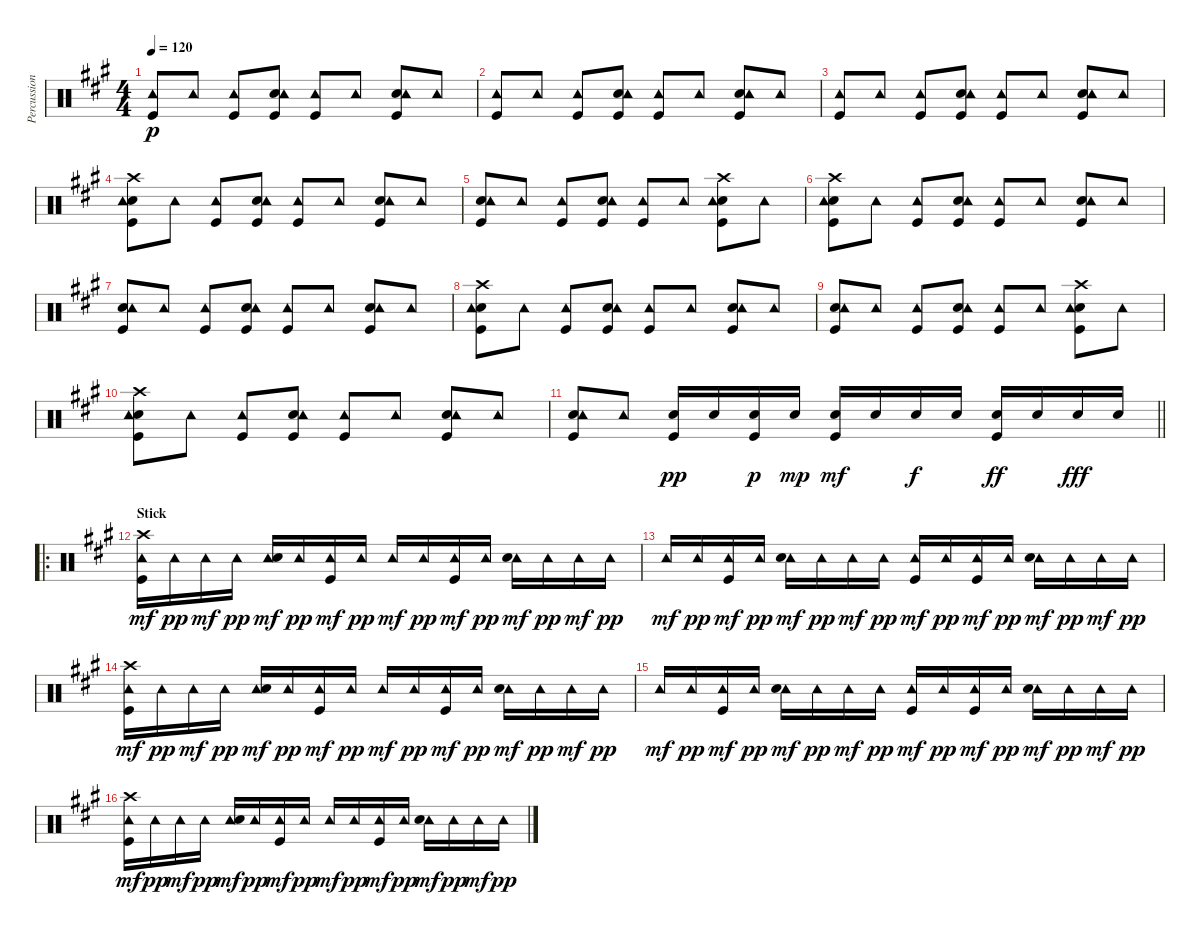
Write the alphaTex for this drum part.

\track ("Percussion" "Percussion") {instrument percussion}
\staff {score}
\articulation defaults
\ts (4 4)
\tempo 120
\clef neutral
\ks a
("Kick (hit)" "Tambourine (hit)").8{dy p} "Tambourine (hit)".8 ("Kick (hit)" "Tambourine (hit)").8 ("Kick (hit)" "Electric Snare (hit)" "Tambourine (hit)").8 ("Kick (hit)" "Tambourine (hit)").8 "Tambourine (hit)".8 ("Kick (hit)" "Electric Snare (hit)" "Tambourine (hit)").8 "Tambourine (hit)".8 |
("Kick (hit)" "Tambourine (hit)").8 "Tambourine (hit)".8 ("Kick (hit)" "Tambourine (hit)").8 ("Kick (hit)" "Electric Snare (hit)" "Tambourine (hit)").8 ("Kick (hit)" "Tambourine (hit)").8 "Tambourine (hit)".8 ("Kick (hit)" "Electric Snare (hit)" "Tambourine (hit)").8 "Tambourine (hit)".8 |
("Kick (hit)" "Tambourine (hit)").8 "Tambourine (hit)".8 ("Kick (hit)" "Tambourine (hit)").8 ("Kick (hit)" "Electric Snare (hit)" "Tambourine (hit)").8 ("Kick (hit)" "Tambourine (hit)").8 "Tambourine (hit)".8 ("Kick (hit)" "Electric Snare (hit)" "Tambourine (hit)").8 "Tambourine (hit)".8 |
("Kick (hit)" "Electric Snare (hit)" "Crash high (hit)" "Tambourine (hit)").8 "Tambourine (hit)".8 ("Kick (hit)" "Tambourine (hit)").8 ("Kick (hit)" "Electric Snare (hit)" "Tambourine (hit)").8 ("Kick (hit)" "Tambourine (hit)").8 "Tambourine (hit)".8 ("Kick (hit)" "Electric Snare (hit)" "Tambourine (hit)").8 "Tambourine (hit)".8 |
("Kick (hit)" "Electric Snare (hit)" "Tambourine (hit)").8 "Tambourine (hit)".8 ("Kick (hit)" "Tambourine (hit)").8 ("Kick (hit)" "Electric Snare (hit)" "Tambourine (hit)").8 ("Kick (hit)" "Tambourine (hit)").8 "Tambourine (hit)".8 ("Kick (hit)" "Electric Snare (hit)" "Crash high (hit)" "Tambourine (hit)").8 "Tambourine (hit)".8 |
("Kick (hit)" "Electric Snare (hit)" "Crash high (hit)" "Tambourine (hit)").8 "Tambourine (hit)".8 ("Kick (hit)" "Tambourine (hit)").8 ("Kick (hit)" "Electric Snare (hit)" "Tambourine (hit)").8 ("Kick (hit)" "Tambourine (hit)").8 "Tambourine (hit)".8 ("Kick (hit)" "Electric Snare (hit)" "Tambourine (hit)").8 "Tambourine (hit)".8 |
("Kick (hit)" "Electric Snare (hit)" "Tambourine (hit)").8 "Tambourine (hit)".8 ("Kick (hit)" "Tambourine (hit)").8 ("Kick (hit)" "Electric Snare (hit)" "Tambourine (hit)").8 ("Kick (hit)" "Tambourine (hit)").8 "Tambourine (hit)".8 ("Kick (hit)" "Electric Snare (hit)" "Tambourine (hit)").8 "Tambourine (hit)".8 |
("Kick (hit)" "Electric Snare (hit)" "Crash high (hit)" "Tambourine (hit)").8 "Tambourine (hit)".8 ("Kick (hit)" "Tambourine (hit)").8 ("Kick (hit)" "Electric Snare (hit)" "Tambourine (hit)").8 ("Kick (hit)" "Tambourine (hit)").8 "Tambourine (hit)".8 ("Kick (hit)" "Electric Snare (hit)" "Tambourine (hit)").8 "Tambourine (hit)".8 |
("Kick (hit)" "Electric Snare (hit)" "Tambourine (hit)").8 "Tambourine (hit)".8 ("Kick (hit)" "Tambourine (hit)").8 ("Kick (hit)" "Electric Snare (hit)" "Tambourine (hit)").8 ("Kick (hit)" "Tambourine (hit)").8 "Tambourine (hit)".8 ("Kick (hit)" "Electric Snare (hit)" "Crash high (hit)" "Tambourine (hit)").8 "Tambourine (hit)".8 |
("Kick (hit)" "Electric Snare (hit)" "Crash high (hit)" "Tambourine (hit)").8 "Tambourine (hit)".8 ("Kick (hit)" "Tambourine (hit)").8 ("Kick (hit)" "Electric Snare (hit)" "Tambourine (hit)").8 ("Kick (hit)" "Tambourine (hit)").8 "Tambourine (hit)".8 ("Kick (hit)" "Electric Snare (hit)" "Tambourine (hit)").8 "Tambourine (hit)".8 |
\barLineRight lightlight
("Kick (hit)" "Electric Snare (hit)" "Tambourine (hit)").8 "Tambourine (hit)".8 ("Kick (hit)" "Electric Snare (hit)").16{dy pp} "Electric Snare (hit)".16 ("Kick (hit)" "Electric Snare (hit)").16{dy p} "Electric Snare (hit)".16{dy mp} ("Kick (hit)" "Electric Snare (hit)").16{dy mf} "Electric Snare (hit)".16 "Electric Snare (hit)".16{dy f} "Electric Snare (hit)".16 ("Kick (hit)" "Electric Snare (hit)").16{dy ff} "Electric Snare (hit)".16 "Electric Snare (hit)".16{dy fff} "Electric Snare (hit)".16 |
\ro
\section ("" "Stick")
("Crash high (hit)" "Tambourine (hit)" "Kick (hit)").16{dy mf} "Tambourine (hit)".16{dy pp} "Tambourine (hit)".16{dy mf} "Tambourine (hit)".16{dy pp} ("Tambourine (hit)" "Electric Snare (hit)").16{dy mf} "Tambourine (hit)".16{dy pp} ("Tambourine (hit)" "Kick (hit)").16{dy mf} "Tambourine (hit)".16{dy pp} "Tambourine (hit)".16{dy mf} "Tambourine (hit)".16{dy pp} ("Tambourine (hit)" "Kick (hit)").16{dy mf} "Tambourine (hit)".16{dy pp} ("Tambourine (hit)" "Electric Snare (hit)").16{dy mf} "Tambourine (hit)".16{dy pp} "Tambourine (hit)".16{dy mf} "Tambourine (hit)".16{dy pp} |
"Tambourine (hit)".16{dy mf} "Tambourine (hit)".16{dy pp} ("Tambourine (hit)" "Kick (hit)").16{dy mf} "Tambourine (hit)".16{dy pp} ("Tambourine (hit)" "Electric Snare (hit)").16{dy mf} "Tambourine (hit)".16{dy pp} "Tambourine (hit)".16{dy mf} "Tambourine (hit)".16{dy pp} ("Tambourine (hit)" "Kick (hit)").16{dy mf} "Tambourine (hit)".16{dy pp} ("Tambourine (hit)" "Kick (hit)").16{dy mf} "Tambourine (hit)".16{dy pp} ("Tambourine (hit)" "Electric Snare (hit)").16{dy mf} "Tambourine (hit)".16{dy pp} "Tambourine (hit)".16{dy mf} "Tambourine (hit)".16{dy pp} |
("Crash high (hit)" "Tambourine (hit)" "Kick (hit)").16{dy mf} "Tambourine (hit)".16{dy pp} "Tambourine (hit)".16{dy mf} "Tambourine (hit)".16{dy pp} ("Tambourine (hit)" "Electric Snare (hit)").16{dy mf} "Tambourine (hit)".16{dy pp} ("Tambourine (hit)" "Kick (hit)").16{dy mf} "Tambourine (hit)".16{dy pp} "Tambourine (hit)".16{dy mf} "Tambourine (hit)".16{dy pp} ("Tambourine (hit)" "Kick (hit)").16{dy mf} "Tambourine (hit)".16{dy pp} ("Tambourine (hit)" "Electric Snare (hit)").16{dy mf} "Tambourine (hit)".16{dy pp} "Tambourine (hit)".16{dy mf} "Tambourine (hit)".16{dy pp} |
"Tambourine (hit)".16{dy mf} "Tambourine (hit)".16{dy pp} ("Tambourine (hit)" "Kick (hit)").16{dy mf} "Tambourine (hit)".16{dy pp} ("Tambourine (hit)" "Electric Snare (hit)").16{dy mf} "Tambourine (hit)".16{dy pp} "Tambourine (hit)".16{dy mf} "Tambourine (hit)".16{dy pp} ("Tambourine (hit)" "Kick (hit)").16{dy mf} "Tambourine (hit)".16{dy pp} ("Tambourine (hit)" "Kick (hit)").16{dy mf} "Tambourine (hit)".16{dy pp} ("Tambourine (hit)" "Electric Snare (hit)").16{dy mf} "Tambourine (hit)".16{dy pp} "Tambourine (hit)".16{dy mf} "Tambourine (hit)".16{dy pp} |
("Crash high (hit)" "Tambourine (hit)" "Kick (hit)").16{dy mf} "Tambourine (hit)".16{dy pp} "Tambourine (hit)".16{dy mf} "Tambourine (hit)".16{dy pp} ("Tambourine (hit)" "Electric Snare (hit)").16{dy mf} "Tambourine (hit)".16{dy pp} ("Tambourine (hit)" "Kick (hit)").16{dy mf} "Tambourine (hit)".16{dy pp} "Tambourine (hit)".16{dy mf} "Tambourine (hit)".16{dy pp} ("Tambourine (hit)" "Kick (hit)").16{dy mf} "Tambourine (hit)".16{dy pp} ("Tambourine (hit)" "Electric Snare (hit)").16{dy mf} "Tambourine (hit)".16{dy pp} "Tambourine (hit)".16{dy mf} "Tambourine (hit)".16{dy pp}
